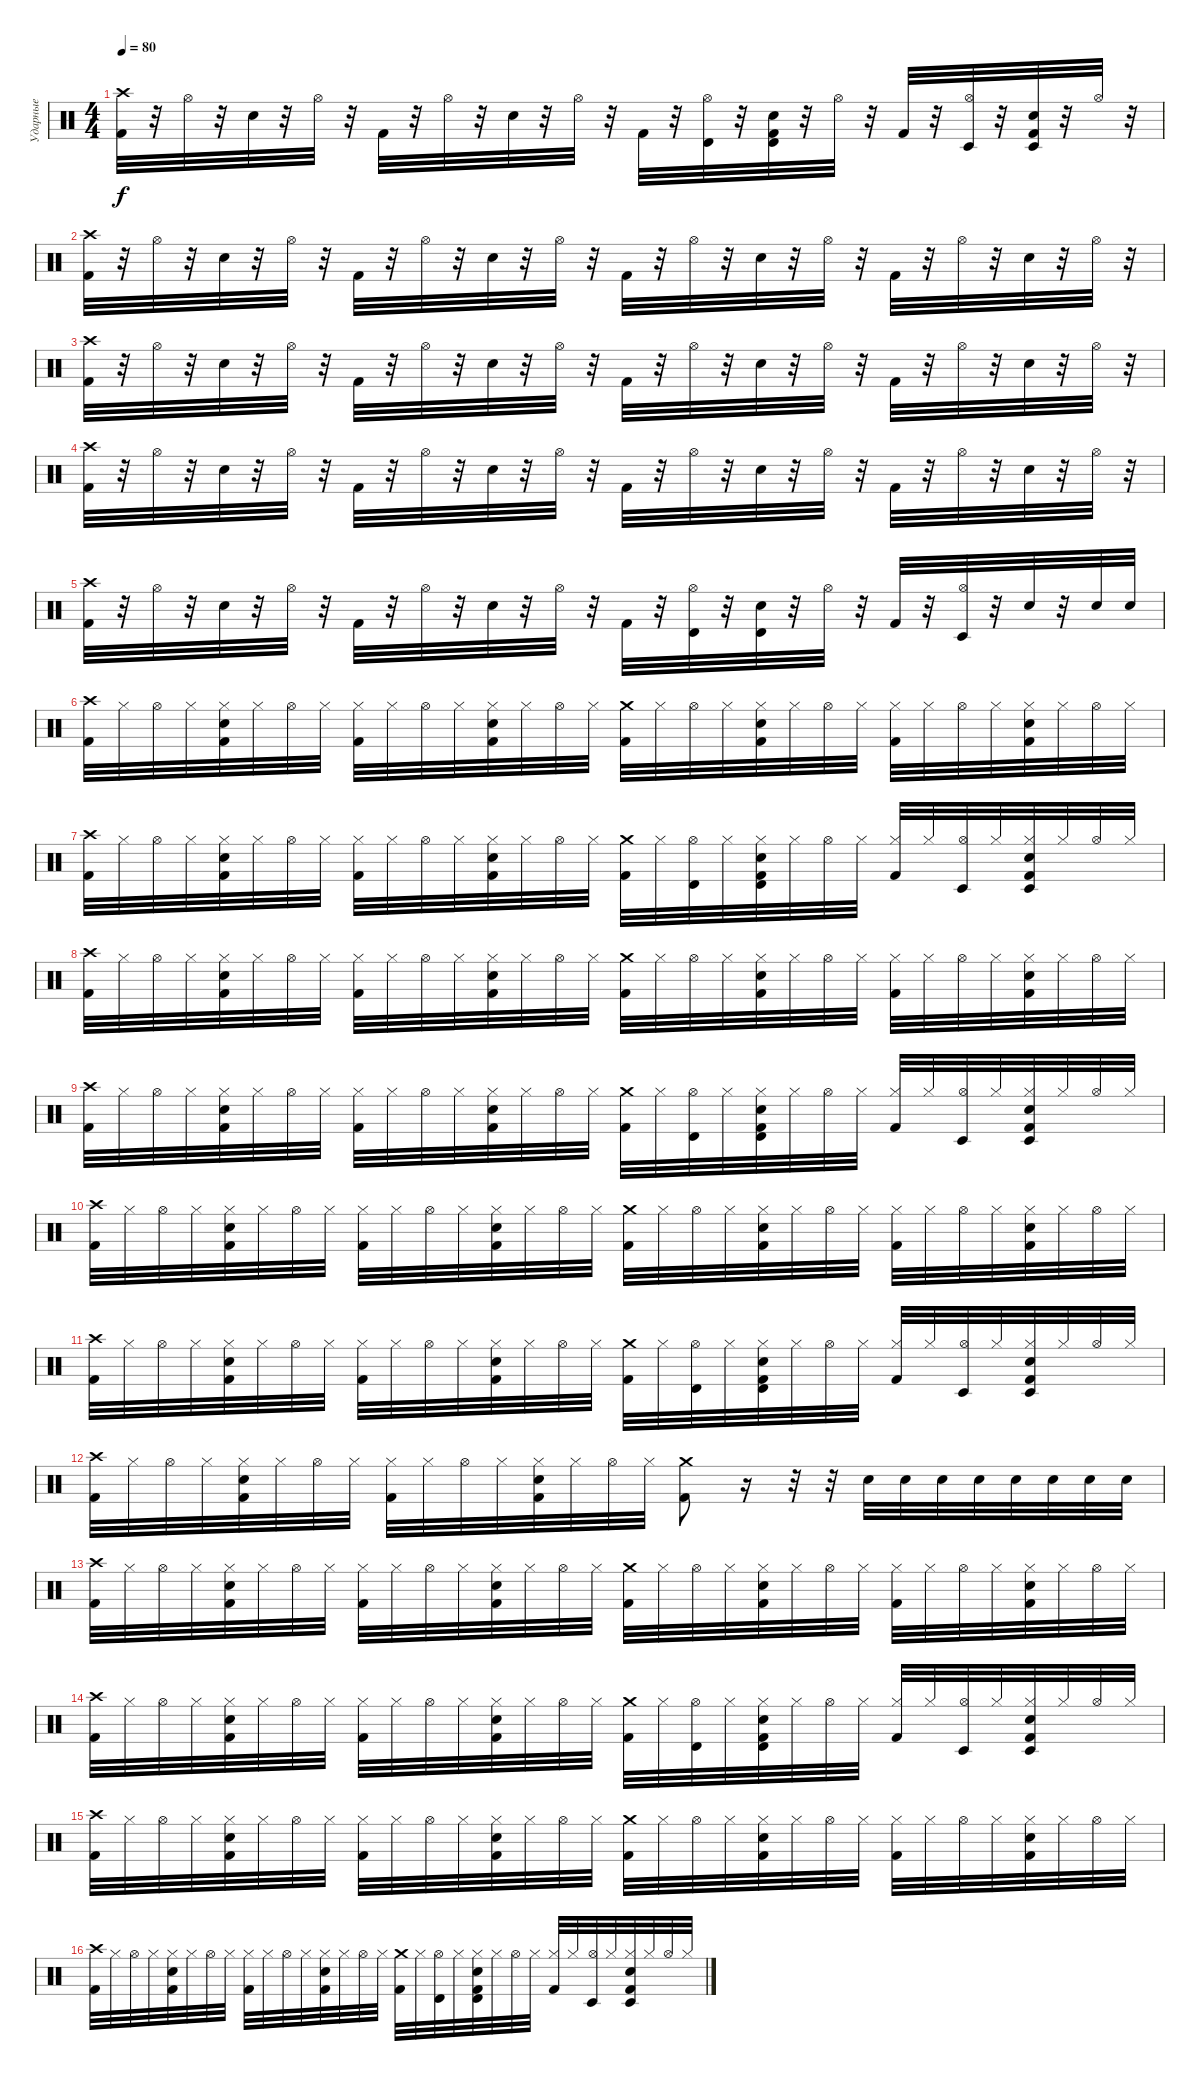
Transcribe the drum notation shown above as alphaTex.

\track ("Ударные" "Ударные") {instrument percussion}
\staff {score}
\articulation defaults
\ts (4 4)
\tempo 80
\clef neutral
\ks c
("Crash high (hit)" "Kick (hit) 2").32{dy f} r.32 "Hi-Hat (open)".32 r.32 "Snare (hit) 2".32 r.32 "Hi-Hat (open)".32 r.32 "Kick (hit) 2".32 r.32 "Hi-Hat (open)".32 r.32 "Snare (hit) 2".32 r.32 "Hi-Hat (open)".32 r.32 "Kick (hit) 2".32 r.32 ("Hi-Hat (open)" "Timbale high (hit)").32 r.32 ("Snare (hit) 2" "Kick (hit) 2" "Timbale high (hit)").32 r.32 "Hi-Hat (open)".32 r.32 "Kick (hit) 2".32 r.32 ("Hi-Hat (open)" "Timbale low (hit)").32 r.32 ("Snare (hit) 2" "Kick (hit) 2" "Timbale low (hit)").32 r.32 "Hi-Hat (open)".32 r.32 |
("Crash high (hit)" "Kick (hit) 2").32 r.32 "Hi-Hat (open)".32 r.32 "Snare (hit) 2".32 r.32 "Hi-Hat (open)".32 r.32 "Kick (hit) 2".32 r.32 "Hi-Hat (open)".32 r.32 "Snare (hit) 2".32 r.32 "Hi-Hat (open)".32 r.32 "Kick (hit) 2".32 r.32 "Hi-Hat (open)".32 r.32 "Snare (hit) 2".32 r.32 "Hi-Hat (open)".32 r.32 "Kick (hit) 2".32 r.32 "Hi-Hat (open)".32 r.32 "Snare (hit) 2".32 r.32 "Hi-Hat (open)".32 r.32 |
("Crash high (hit)" "Kick (hit) 2").32 r.32 "Hi-Hat (open)".32 r.32 "Snare (hit) 2".32 r.32 "Hi-Hat (open)".32 r.32 "Kick (hit) 2".32 r.32 "Hi-Hat (open)".32 r.32 "Snare (hit) 2".32 r.32 "Hi-Hat (open)".32 r.32 "Kick (hit) 2".32 r.32 "Hi-Hat (open)".32 r.32 "Snare (hit) 2".32 r.32 "Hi-Hat (open)".32 r.32 "Kick (hit) 2".32 r.32 "Hi-Hat (open)".32 r.32 "Snare (hit) 2".32 r.32 "Hi-Hat (open)".32 r.32 |
("Crash high (hit)" "Kick (hit) 2").32 r.32 "Hi-Hat (open)".32 r.32 "Snare (hit) 2".32 r.32 "Hi-Hat (open)".32 r.32 "Kick (hit) 2".32 r.32 "Hi-Hat (open)".32 r.32 "Snare (hit) 2".32 r.32 "Hi-Hat (open)".32 r.32 "Kick (hit) 2".32 r.32 "Hi-Hat (open)".32 r.32 "Snare (hit) 2".32 r.32 "Hi-Hat (open)".32 r.32 "Kick (hit) 2".32 r.32 "Hi-Hat (open)".32 r.32 "Snare (hit) 2".32 r.32 "Hi-Hat (open)".32 r.32 |
("Crash high (hit)" "Kick (hit) 2").32 r.32 "Hi-Hat (open)".32 r.32 "Snare (hit) 2".32 r.32 "Hi-Hat (open)".32 r.32 "Kick (hit) 2".32 r.32 "Hi-Hat (open)".32 r.32 "Snare (hit) 2".32 r.32 "Hi-Hat (open)".32 r.32 "Kick (hit) 2".32 r.32 ("Hi-Hat (open)" "Timbale high (hit)").32 r.32 ("Snare (hit) 2" "Timbale high (hit)").32 r.32 "Hi-Hat (open)".32 r.32 "Kick (hit) 2".32 r.32 ("Hi-Hat (open)" "Timbale low (hit)").32 r.32 "Snare (hit) 2".32 r.32 "Snare (hit) 2".32 "Snare (hit) 2".32 |
("Crash high (hit)" "Kick (hit) 2").32 "Hi-Hat (closed)".32 "Hi-Hat (open)".32 "Hi-Hat (closed)".32 ("Hi-Hat (closed)" "Snare (hit) 2" "Kick (hit) 2").32 "Hi-Hat (closed)".32 "Hi-Hat (open)".32 "Hi-Hat (closed)".32 ("Hi-Hat (closed)" "Kick (hit) 2").32 "Hi-Hat (closed)".32 "Hi-Hat (open)".32 "Hi-Hat (closed)".32 ("Hi-Hat (closed)" "Snare (hit) 2" "Kick (hit) 2").32 "Hi-Hat (closed)".32 "Hi-Hat (open)".32 "Hi-Hat (closed)".32 ("Crash medium (hit)" "Kick (hit) 2").32 "Hi-Hat (closed)".32 "Hi-Hat (open)".32 "Hi-Hat (closed)".32 ("Hi-Hat (closed)" "Snare (hit) 2" "Kick (hit) 2").32 "Hi-Hat (closed)".32 "Hi-Hat (open)".32 "Hi-Hat (closed)".32 ("Hi-Hat (closed)" "Kick (hit) 2").32 "Hi-Hat (closed)".32 "Hi-Hat (open)".32 "Hi-Hat (closed)".32 ("Hi-Hat (closed)" "Snare (hit) 2" "Kick (hit) 2").32 "Hi-Hat (closed)".32 "Hi-Hat (open)".32 "Hi-Hat (closed)".32 |
("Crash high (hit)" "Kick (hit) 2").32 "Hi-Hat (closed)".32 "Hi-Hat (open)".32 "Hi-Hat (closed)".32 ("Hi-Hat (closed)" "Snare (hit) 2" "Kick (hit) 2").32 "Hi-Hat (closed)".32 "Hi-Hat (open)".32 "Hi-Hat (closed)".32 ("Hi-Hat (closed)" "Kick (hit) 2").32 "Hi-Hat (closed)".32 "Hi-Hat (open)".32 "Hi-Hat (closed)".32 ("Hi-Hat (closed)" "Snare (hit) 2" "Kick (hit) 2").32 "Hi-Hat (closed)".32 "Hi-Hat (open)".32 "Hi-Hat (closed)".32 ("Crash medium (hit)" "Kick (hit) 2").32 "Hi-Hat (closed)".32 ("Hi-Hat (open)" "Timbale high (hit)").32 "Hi-Hat (closed)".32 ("Hi-Hat (closed)" "Snare (hit) 2" "Kick (hit) 2" "Timbale high (hit)").32 "Hi-Hat (closed)".32 "Hi-Hat (open)".32 "Hi-Hat (closed)".32 ("Hi-Hat (closed)" "Kick (hit) 2").32 "Hi-Hat (closed)".32 ("Hi-Hat (open)" "Timbale low (hit)").32 "Hi-Hat (closed)".32 ("Hi-Hat (closed)" "Snare (hit) 2" "Kick (hit) 2" "Timbale low (hit)").32 "Hi-Hat (closed)".32 "Hi-Hat (open)".32 "Hi-Hat (closed)".32 |
("Crash high (hit)" "Kick (hit) 2").32 "Hi-Hat (closed)".32 "Hi-Hat (open)".32 "Hi-Hat (closed)".32 ("Hi-Hat (closed)" "Snare (hit) 2" "Kick (hit) 2").32 "Hi-Hat (closed)".32 "Hi-Hat (open)".32 "Hi-Hat (closed)".32 ("Hi-Hat (closed)" "Kick (hit) 2").32 "Hi-Hat (closed)".32 "Hi-Hat (open)".32 "Hi-Hat (closed)".32 ("Hi-Hat (closed)" "Snare (hit) 2" "Kick (hit) 2").32 "Hi-Hat (closed)".32 "Hi-Hat (open)".32 "Hi-Hat (closed)".32 ("Crash medium (hit)" "Kick (hit) 2").32 "Hi-Hat (closed)".32 "Hi-Hat (open)".32 "Hi-Hat (closed)".32 ("Hi-Hat (closed)" "Snare (hit) 2" "Kick (hit) 2").32 "Hi-Hat (closed)".32 "Hi-Hat (open)".32 "Hi-Hat (closed)".32 ("Hi-Hat (closed)" "Kick (hit) 2").32 "Hi-Hat (closed)".32 "Hi-Hat (open)".32 "Hi-Hat (closed)".32 ("Hi-Hat (closed)" "Snare (hit) 2" "Kick (hit) 2").32 "Hi-Hat (closed)".32 "Hi-Hat (open)".32 "Hi-Hat (closed)".32 |
("Crash high (hit)" "Kick (hit) 2").32 "Hi-Hat (closed)".32 "Hi-Hat (open)".32 "Hi-Hat (closed)".32 ("Hi-Hat (closed)" "Snare (hit) 2" "Kick (hit) 2").32 "Hi-Hat (closed)".32 "Hi-Hat (open)".32 "Hi-Hat (closed)".32 ("Hi-Hat (closed)" "Kick (hit) 2").32 "Hi-Hat (closed)".32 "Hi-Hat (open)".32 "Hi-Hat (closed)".32 ("Hi-Hat (closed)" "Snare (hit) 2" "Kick (hit) 2").32 "Hi-Hat (closed)".32 "Hi-Hat (open)".32 "Hi-Hat (closed)".32 ("Crash medium (hit)" "Kick (hit) 2").32 "Hi-Hat (closed)".32 ("Hi-Hat (open)" "Timbale high (hit)").32 "Hi-Hat (closed)".32 ("Hi-Hat (closed)" "Snare (hit) 2" "Kick (hit) 2" "Timbale high (hit)").32 "Hi-Hat (closed)".32 "Hi-Hat (open)".32 "Hi-Hat (closed)".32 ("Hi-Hat (closed)" "Kick (hit) 2").32 "Hi-Hat (closed)".32 ("Hi-Hat (open)" "Timbale low (hit)").32 "Hi-Hat (closed)".32 ("Hi-Hat (closed)" "Snare (hit) 2" "Kick (hit) 2" "Timbale low (hit)").32 "Hi-Hat (closed)".32 "Hi-Hat (open)".32 "Hi-Hat (closed)".32 |
("Crash high (hit)" "Kick (hit) 2").32 "Hi-Hat (closed)".32 "Hi-Hat (open)".32 "Hi-Hat (closed)".32 ("Hi-Hat (closed)" "Snare (hit) 2" "Kick (hit) 2").32 "Hi-Hat (closed)".32 "Hi-Hat (open)".32 "Hi-Hat (closed)".32 ("Hi-Hat (closed)" "Kick (hit) 2").32 "Hi-Hat (closed)".32 "Hi-Hat (open)".32 "Hi-Hat (closed)".32 ("Hi-Hat (closed)" "Snare (hit) 2" "Kick (hit) 2").32 "Hi-Hat (closed)".32 "Hi-Hat (open)".32 "Hi-Hat (closed)".32 ("Crash medium (hit)" "Kick (hit) 2").32 "Hi-Hat (closed)".32 "Hi-Hat (open)".32 "Hi-Hat (closed)".32 ("Hi-Hat (closed)" "Snare (hit) 2" "Kick (hit) 2").32 "Hi-Hat (closed)".32 "Hi-Hat (open)".32 "Hi-Hat (closed)".32 ("Hi-Hat (closed)" "Kick (hit) 2").32 "Hi-Hat (closed)".32 "Hi-Hat (open)".32 "Hi-Hat (closed)".32 ("Hi-Hat (closed)" "Snare (hit) 2" "Kick (hit) 2").32 "Hi-Hat (closed)".32 "Hi-Hat (open)".32 "Hi-Hat (closed)".32 |
("Crash high (hit)" "Kick (hit) 2").32 "Hi-Hat (closed)".32 "Hi-Hat (open)".32 "Hi-Hat (closed)".32 ("Hi-Hat (closed)" "Snare (hit) 2" "Kick (hit) 2").32 "Hi-Hat (closed)".32 "Hi-Hat (open)".32 "Hi-Hat (closed)".32 ("Hi-Hat (closed)" "Kick (hit) 2").32 "Hi-Hat (closed)".32 "Hi-Hat (open)".32 "Hi-Hat (closed)".32 ("Hi-Hat (closed)" "Snare (hit) 2" "Kick (hit) 2").32 "Hi-Hat (closed)".32 "Hi-Hat (open)".32 "Hi-Hat (closed)".32 ("Crash medium (hit)" "Kick (hit) 2").32 "Hi-Hat (closed)".32 ("Hi-Hat (open)" "Timbale high (hit)").32 "Hi-Hat (closed)".32 ("Hi-Hat (closed)" "Snare (hit) 2" "Kick (hit) 2" "Timbale high (hit)").32 "Hi-Hat (closed)".32 "Hi-Hat (open)".32 "Hi-Hat (closed)".32 ("Hi-Hat (closed)" "Kick (hit) 2").32 "Hi-Hat (closed)".32 ("Hi-Hat (open)" "Timbale low (hit)").32 "Hi-Hat (closed)".32 ("Hi-Hat (closed)" "Snare (hit) 2" "Kick (hit) 2" "Timbale low (hit)").32 "Hi-Hat (closed)".32 "Hi-Hat (open)".32 "Hi-Hat (closed)".32 |
("Crash high (hit)" "Kick (hit) 2").32 "Hi-Hat (closed)".32 "Hi-Hat (open)".32 "Hi-Hat (closed)".32 ("Hi-Hat (closed)" "Snare (hit) 2" "Kick (hit) 2").32 "Hi-Hat (closed)".32 "Hi-Hat (open)".32 "Hi-Hat (closed)".32 ("Hi-Hat (closed)" "Kick (hit) 2").32 "Hi-Hat (closed)".32 "Hi-Hat (open)".32 "Hi-Hat (closed)".32 ("Hi-Hat (closed)" "Snare (hit) 2" "Kick (hit) 2").32 "Hi-Hat (closed)".32 "Hi-Hat (open)".32 "Hi-Hat (closed)".32 ("Crash medium (hit)" "Kick (hit) 2").8 r.16 r.32 r.32 "Snare (hit) 2".32 "Snare (hit) 2".32 "Snare (hit) 2".32 "Snare (hit) 2".32 "Snare (hit) 2".32 "Snare (hit) 2".32 "Snare (hit) 2".32 "Snare (hit) 2".32 |
("Crash high (hit)" "Kick (hit) 2").32 "Hi-Hat (closed)".32 "Hi-Hat (open)".32 "Hi-Hat (closed)".32 ("Hi-Hat (closed)" "Snare (hit) 2" "Kick (hit) 2").32 "Hi-Hat (closed)".32 "Hi-Hat (open)".32 "Hi-Hat (closed)".32 ("Hi-Hat (closed)" "Kick (hit) 2").32 "Hi-Hat (closed)".32 "Hi-Hat (open)".32 "Hi-Hat (closed)".32 ("Hi-Hat (closed)" "Snare (hit) 2" "Kick (hit) 2").32 "Hi-Hat (closed)".32 "Hi-Hat (open)".32 "Hi-Hat (closed)".32 ("Crash medium (hit)" "Kick (hit) 2").32 "Hi-Hat (closed)".32 "Hi-Hat (open)".32 "Hi-Hat (closed)".32 ("Hi-Hat (closed)" "Snare (hit) 2" "Kick (hit) 2").32 "Hi-Hat (closed)".32 "Hi-Hat (open)".32 "Hi-Hat (closed)".32 ("Hi-Hat (closed)" "Kick (hit) 2").32 "Hi-Hat (closed)".32 "Hi-Hat (open)".32 "Hi-Hat (closed)".32 ("Hi-Hat (closed)" "Snare (hit) 2" "Kick (hit) 2").32 "Hi-Hat (closed)".32 "Hi-Hat (open)".32 "Hi-Hat (closed)".32 |
("Crash high (hit)" "Kick (hit) 2").32 "Hi-Hat (closed)".32 "Hi-Hat (open)".32 "Hi-Hat (closed)".32 ("Hi-Hat (closed)" "Snare (hit) 2" "Kick (hit) 2").32 "Hi-Hat (closed)".32 "Hi-Hat (open)".32 "Hi-Hat (closed)".32 ("Hi-Hat (closed)" "Kick (hit) 2").32 "Hi-Hat (closed)".32 "Hi-Hat (open)".32 "Hi-Hat (closed)".32 ("Hi-Hat (closed)" "Snare (hit) 2" "Kick (hit) 2").32 "Hi-Hat (closed)".32 "Hi-Hat (open)".32 "Hi-Hat (closed)".32 ("Crash medium (hit)" "Kick (hit) 2").32 "Hi-Hat (closed)".32 ("Hi-Hat (open)" "Timbale high (hit)").32 "Hi-Hat (closed)".32 ("Hi-Hat (closed)" "Snare (hit) 2" "Kick (hit) 2" "Timbale high (hit)").32 "Hi-Hat (closed)".32 "Hi-Hat (open)".32 "Hi-Hat (closed)".32 ("Hi-Hat (closed)" "Kick (hit) 2").32 "Hi-Hat (closed)".32 ("Hi-Hat (open)" "Timbale low (hit)").32 "Hi-Hat (closed)".32 ("Hi-Hat (closed)" "Snare (hit) 2" "Kick (hit) 2" "Timbale low (hit)").32 "Hi-Hat (closed)".32 "Hi-Hat (open)".32 "Hi-Hat (closed)".32 |
("Crash high (hit)" "Kick (hit) 2").32 "Hi-Hat (closed)".32 "Hi-Hat (open)".32 "Hi-Hat (closed)".32 ("Hi-Hat (closed)" "Snare (hit) 2" "Kick (hit) 2").32 "Hi-Hat (closed)".32 "Hi-Hat (open)".32 "Hi-Hat (closed)".32 ("Hi-Hat (closed)" "Kick (hit) 2").32 "Hi-Hat (closed)".32 "Hi-Hat (open)".32 "Hi-Hat (closed)".32 ("Hi-Hat (closed)" "Snare (hit) 2" "Kick (hit) 2").32 "Hi-Hat (closed)".32 "Hi-Hat (open)".32 "Hi-Hat (closed)".32 ("Crash medium (hit)" "Kick (hit) 2").32 "Hi-Hat (closed)".32 "Hi-Hat (open)".32 "Hi-Hat (closed)".32 ("Hi-Hat (closed)" "Snare (hit) 2" "Kick (hit) 2").32 "Hi-Hat (closed)".32 "Hi-Hat (open)".32 "Hi-Hat (closed)".32 ("Hi-Hat (closed)" "Kick (hit) 2").32 "Hi-Hat (closed)".32 "Hi-Hat (open)".32 "Hi-Hat (closed)".32 ("Hi-Hat (closed)" "Snare (hit) 2" "Kick (hit) 2").32 "Hi-Hat (closed)".32 "Hi-Hat (open)".32 "Hi-Hat (closed)".32 |
("Crash high (hit)" "Kick (hit) 2").32 "Hi-Hat (closed)".32 "Hi-Hat (open)".32 "Hi-Hat (closed)".32 ("Hi-Hat (closed)" "Snare (hit) 2" "Kick (hit) 2").32 "Hi-Hat (closed)".32 "Hi-Hat (open)".32 "Hi-Hat (closed)".32 ("Hi-Hat (closed)" "Kick (hit) 2").32 "Hi-Hat (closed)".32 "Hi-Hat (open)".32 "Hi-Hat (closed)".32 ("Hi-Hat (closed)" "Snare (hit) 2" "Kick (hit) 2").32 "Hi-Hat (closed)".32 "Hi-Hat (open)".32 "Hi-Hat (closed)".32 ("Crash medium (hit)" "Kick (hit) 2").32 "Hi-Hat (closed)".32 ("Hi-Hat (open)" "Timbale high (hit)").32 "Hi-Hat (closed)".32 ("Hi-Hat (closed)" "Snare (hit) 2" "Kick (hit) 2" "Timbale high (hit)").32 "Hi-Hat (closed)".32 "Hi-Hat (open)".32 "Hi-Hat (closed)".32 ("Hi-Hat (closed)" "Kick (hit) 2").32 "Hi-Hat (closed)".32 ("Hi-Hat (open)" "Timbale low (hit)").32 "Hi-Hat (closed)".32 ("Hi-Hat (closed)" "Snare (hit) 2" "Kick (hit) 2" "Timbale low (hit)").32 "Hi-Hat (closed)".32 "Hi-Hat (open)".32 "Hi-Hat (closed)".32
